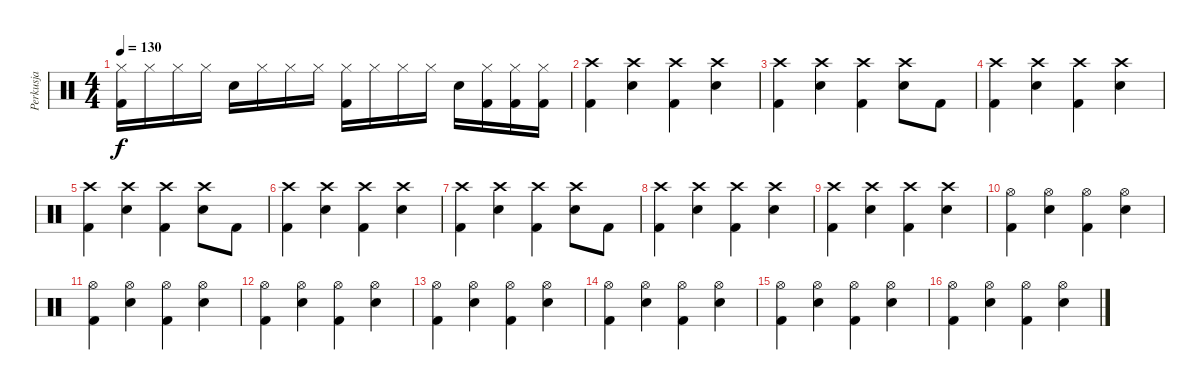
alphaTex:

\track ("Perkusja" "Perkusja") {instrument percussion}
\staff {score}
\articulation defaults
\ts (4 4)
\tempo 130
\clef neutral
\ks c
("Hi-Hat (closed)" "Kick (hit) 2").16{dy f} "Hi-Hat (closed)".16 "Hi-Hat (closed)".16 "Hi-Hat (closed)".16 "Snare (hit) 2".16 "Hi-Hat (closed)".16 "Hi-Hat (closed)".16 "Hi-Hat (closed)".16 ("Hi-Hat (closed)" "Kick (hit) 2").16 "Hi-Hat (closed)".16 "Hi-Hat (closed)".16 "Hi-Hat (closed)".16 "Snare (hit) 2".16 ("Hi-Hat (closed)" "Kick (hit) 2").16 ("Hi-Hat (closed)" "Kick (hit) 2").16 ("Hi-Hat (closed)" "Kick (hit) 2").16 |
("Crash high (hit)" "Kick (hit) 2").4 ("Crash high (hit)" "Snare (hit) 2").4 ("Crash high (hit)" "Kick (hit) 2").4 ("Crash high (hit)" "Snare (hit) 2").4 |
("Crash high (hit)" "Kick (hit) 2").4 ("Crash high (hit)" "Snare (hit) 2").4 ("Crash high (hit)" "Kick (hit) 2").4 ("Crash high (hit)" "Snare (hit) 2").8 "Kick (hit) 2".8 |
("Crash high (hit)" "Kick (hit) 2").4 ("Crash high (hit)" "Snare (hit) 2").4 ("Crash high (hit)" "Kick (hit) 2").4 ("Crash high (hit)" "Snare (hit) 2").4 |
("Crash high (hit)" "Kick (hit) 2").4 ("Crash high (hit)" "Snare (hit) 2").4 ("Crash high (hit)" "Kick (hit) 2").4 ("Crash high (hit)" "Snare (hit) 2").8 "Kick (hit) 2".8 |
("Crash high (hit)" "Kick (hit) 2").4 ("Crash high (hit)" "Snare (hit) 2").4 ("Crash high (hit)" "Kick (hit) 2").4 ("Crash high (hit)" "Snare (hit) 2").4 |
("Crash high (hit)" "Kick (hit) 2").4 ("Crash high (hit)" "Snare (hit) 2").4 ("Crash high (hit)" "Kick (hit) 2").4 ("Crash high (hit)" "Snare (hit) 2").8 "Kick (hit) 2".8 |
("Crash high (hit)" "Kick (hit) 2").4 ("Crash high (hit)" "Snare (hit) 2").4 ("Crash high (hit)" "Kick (hit) 2").4 ("Crash high (hit)" "Snare (hit) 2").4 |
("Crash high (hit)" "Kick (hit) 2").4 ("Crash high (hit)" "Snare (hit) 2").4 ("Crash high (hit)" "Kick (hit) 2").4 ("Crash high (hit)" "Snare (hit) 2").4 |
("Hi-Hat (open)" "Kick (hit) 2").4 ("Hi-Hat (open)" "Snare (hit) 2").4 ("Hi-Hat (open)" "Kick (hit) 2").4 ("Hi-Hat (open)" "Snare (hit) 2").4 |
("Hi-Hat (open)" "Kick (hit) 2").4 ("Hi-Hat (open)" "Snare (hit) 2").4 ("Hi-Hat (open)" "Kick (hit) 2").4 ("Hi-Hat (open)" "Snare (hit) 2").4 |
("Hi-Hat (open)" "Kick (hit) 2").4 ("Hi-Hat (open)" "Snare (hit) 2").4 ("Hi-Hat (open)" "Kick (hit) 2").4 ("Hi-Hat (open)" "Snare (hit) 2").4 |
("Hi-Hat (open)" "Kick (hit) 2").4 ("Hi-Hat (open)" "Snare (hit) 2").4 ("Hi-Hat (open)" "Kick (hit) 2").4 ("Hi-Hat (open)" "Snare (hit) 2").4 |
("Hi-Hat (open)" "Kick (hit) 2").4 ("Hi-Hat (open)" "Snare (hit) 2").4 ("Hi-Hat (open)" "Kick (hit) 2").4 ("Hi-Hat (open)" "Snare (hit) 2").4 |
("Hi-Hat (open)" "Kick (hit) 2").4 ("Hi-Hat (open)" "Snare (hit) 2").4 ("Hi-Hat (open)" "Kick (hit) 2").4 ("Hi-Hat (open)" "Snare (hit) 2").4 |
("Hi-Hat (open)" "Kick (hit) 2").4 ("Hi-Hat (open)" "Snare (hit) 2").4 ("Hi-Hat (open)" "Kick (hit) 2").4 ("Hi-Hat (open)" "Snare (hit) 2").4
